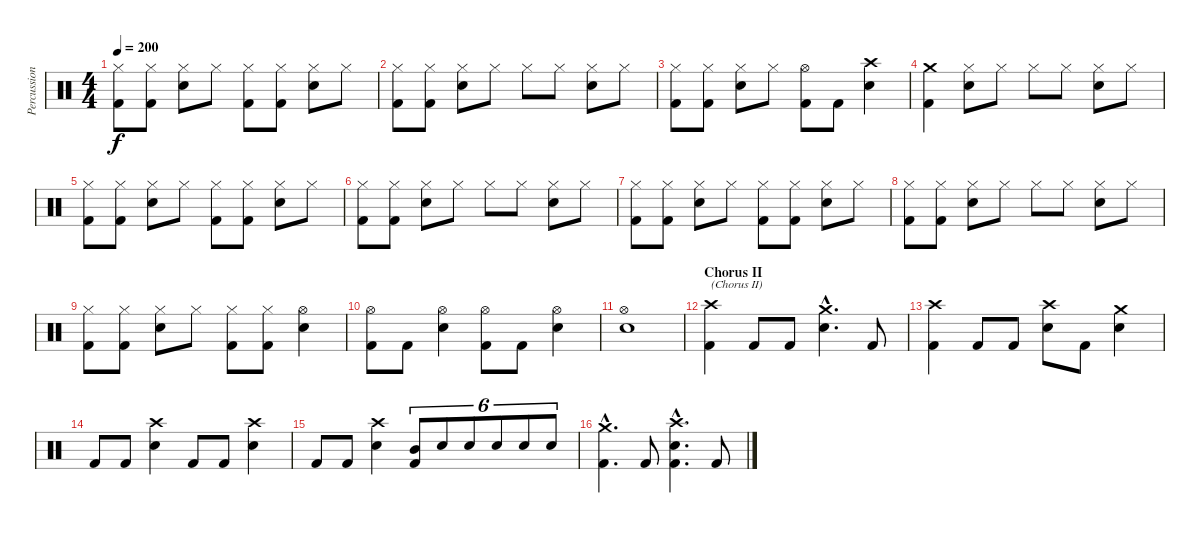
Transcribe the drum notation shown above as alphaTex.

\track ("Percussion" "Percussion") {instrument percussion}
\staff {score}
\articulation defaults
\ts (4 4)
\tempo 200
\clef neutral
\ks c
("Hi-Hat (closed)" "Kick (hit) 2").8{dy f} ("Hi-Hat (closed)" "Kick (hit) 2").8 ("Hi-Hat (closed)" "Electric Snare (hit)").8 "Hi-Hat (closed)".8 ("Hi-Hat (closed)" "Kick (hit) 2").8 ("Hi-Hat (closed)" "Kick (hit) 2").8 ("Hi-Hat (closed)" "Electric Snare (hit)").8 "Hi-Hat (closed)".8 |
("Hi-Hat (closed)" "Kick (hit) 2").8 ("Hi-Hat (closed)" "Kick (hit) 2").8 ("Hi-Hat (closed)" "Electric Snare (hit)").8 "Hi-Hat (closed)".8 "Hi-Hat (closed)".8 "Hi-Hat (closed)".8 ("Hi-Hat (closed)" "Electric Snare (hit)").8 "Hi-Hat (closed)".8 |
("Hi-Hat (closed)" "Kick (hit) 2").8 ("Hi-Hat (closed)" "Kick (hit) 2").8 ("Hi-Hat (closed)" "Electric Snare (hit)").8 "Hi-Hat (closed)".8 ("Hi-Hat (open)" "Kick (hit) 2").8 "Kick (hit) 2".8 ("Crash high (hit)" "Electric Snare (hit)").4 |
("Crash medium (hit)" "Kick (hit) 2").4 ("Hi-Hat (closed)" "Electric Snare (hit)").8 "Hi-Hat (closed)".8 "Hi-Hat (closed)".8 "Hi-Hat (closed)".8 ("Hi-Hat (closed)" "Electric Snare (hit)").8 "Hi-Hat (closed)".8 |
("Hi-Hat (closed)" "Kick (hit) 2").8 ("Hi-Hat (closed)" "Kick (hit) 2").8 ("Hi-Hat (closed)" "Electric Snare (hit)").8 "Hi-Hat (closed)".8 ("Hi-Hat (closed)" "Kick (hit) 2").8 ("Hi-Hat (closed)" "Kick (hit) 2").8 ("Hi-Hat (closed)" "Electric Snare (hit)").8 "Hi-Hat (closed)".8 |
("Hi-Hat (closed)" "Kick (hit) 2").8 ("Hi-Hat (closed)" "Kick (hit) 2").8 ("Hi-Hat (closed)" "Electric Snare (hit)").8 "Hi-Hat (closed)".8 "Hi-Hat (closed)".8 "Hi-Hat (closed)".8 ("Hi-Hat (closed)" "Electric Snare (hit)").8 "Hi-Hat (closed)".8 |
("Hi-Hat (closed)" "Kick (hit) 2").8 ("Hi-Hat (closed)" "Kick (hit) 2").8 ("Hi-Hat (closed)" "Electric Snare (hit)").8 "Hi-Hat (closed)".8 ("Hi-Hat (closed)" "Kick (hit) 2").8 ("Hi-Hat (closed)" "Kick (hit) 2").8 ("Hi-Hat (closed)" "Electric Snare (hit)").8 "Hi-Hat (closed)".8 |
("Hi-Hat (closed)" "Kick (hit) 2").8 ("Hi-Hat (closed)" "Kick (hit) 2").8 ("Hi-Hat (closed)" "Electric Snare (hit)").8 "Hi-Hat (closed)".8 "Hi-Hat (closed)".8 "Hi-Hat (closed)".8 ("Hi-Hat (closed)" "Electric Snare (hit)").8 "Hi-Hat (closed)".8 |
("Hi-Hat (closed)" "Kick (hit) 2").8 ("Hi-Hat (closed)" "Kick (hit) 2").8 ("Hi-Hat (closed)" "Electric Snare (hit)").8 "Hi-Hat (closed)".8 ("Hi-Hat (closed)" "Kick (hit) 2").8 ("Hi-Hat (closed)" "Kick (hit) 2").8 ("Hi-Hat (open)" "Electric Snare (hit)").4 |
("Hi-Hat (open)" "Kick (hit) 2").8 "Kick (hit) 2".8 ("Hi-Hat (open)" "Electric Snare (hit)").4 ("Hi-Hat (open)" "Kick (hit) 2").8 "Kick (hit) 2".8 ("Hi-Hat (open)" "Electric Snare (hit)").4 |
("Hi-Hat (open)" "Electric Snare (hit)").1 |
\section ("" "Chorus II")
("Crash high (hit)" "Kick (hit) 2").4{txt "(Chorus II)"} "Kick (hit) 2".8 "Kick (hit) 2".8 ("Crash medium (hit)"{hac} "Electric Snare (hit)"{hac}).4{d} "Kick (hit) 2".8 |
("Crash high (hit)" "Kick (hit) 2").4 "Kick (hit) 2".8 "Kick (hit) 2".8 ("Crash high (hit)" "Electric Snare (hit)").8 "Kick (hit) 2".8 ("Crash medium (hit)" "Electric Snare (hit)").4 |
"Kick (hit) 2".8 "Kick (hit) 2".8 ("Crash high (hit)" "Electric Snare (hit)").4 "Kick (hit) 2".8 "Kick (hit) 2".8 ("Crash high (hit)" "Electric Snare (hit)").4 |
"Kick (hit) 2".8 "Kick (hit) 2".8 ("Crash high (hit)" "Electric Snare (hit)").4 ("Mid Tom (hit)" "Kick (hit) 2").8{tu (6 4)} "Electric Snare (hit)".8{tu (6 4)} "Electric Snare (hit)".8{tu (6 4)} "Electric Snare (hit)".8{tu (6 4)} "Electric Snare (hit)".8{tu (6 4)} "Electric Snare (hit)".8{tu (6 4)} |
("Crash medium (hit)"{hac} "Kick (hit) 2"{hac}).4{d} "Kick (hit) 2".8 ("Crash high (hit)"{hac} "Electric Snare (hit)"{hac} "Kick (hit) 2"{hac}).4{d} "Kick (hit) 2".8
